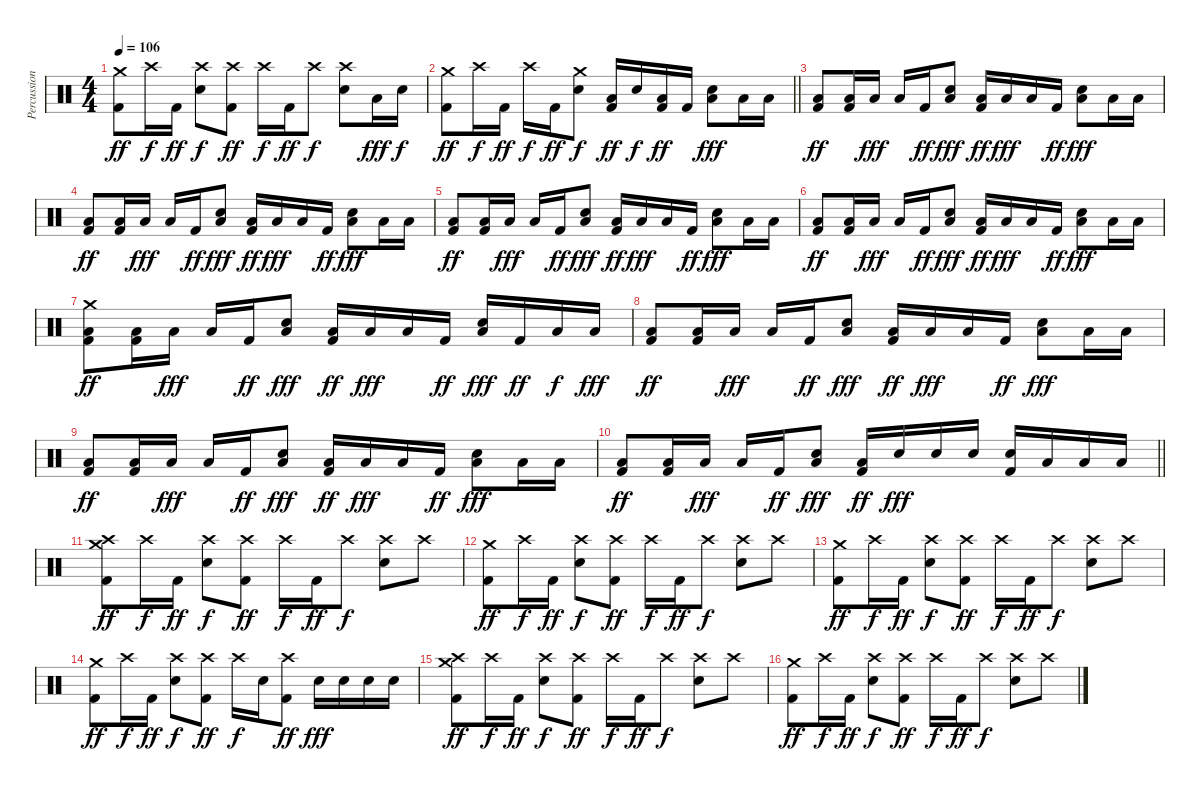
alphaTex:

\track ("Percussion" "Percussion") {instrument percussion}
\staff {score}
\articulation defaults
\ts (4 4)
\tempo 106
\clef neutral
\ks c
("Crash medium (hit)" "Kick (hit) 2").8{dy ff} "Crash high (hit)".16{dy f} "Kick (hit) 2".16{dy ff} ("Crash high (hit)" "Electric Snare (hit)").8{dy f} ("Crash high (hit)" "Kick (hit) 2").8{dy ff} "Crash high (hit)".16{dy f} "Kick (hit) 2".16{dy ff} "Crash high (hit)".8{dy f} ("Crash high (hit)" "Electric Snare (hit)").8 "Low Floor Tom (hit)".16{dy fff} "Electric Snare (hit)".16{dy f} |
\barLineRight lightlight
("Crash medium (hit)" "Kick (hit) 2").8{dy ff} "Crash high (hit)".16{dy f} "Kick (hit) 2".16{dy ff} "Crash high (hit)".16{dy f} "Kick (hit) 2".16{dy ff} ("Crash medium (hit)" "Electric Snare (hit)").8{dy f} ("Low Floor Tom (hit)" "Kick (hit) 2").16{dy ff} "Electric Snare (hit)".16{dy f} ("Low Floor Tom (hit)" "Kick (hit) 2").16{dy ff} "Kick (hit) 2".16 ("Electric Snare (hit)" "Low Floor Tom (hit)").8{dy fff} "Low Floor Tom (hit)".16 "Low Floor Tom (hit)".16 |
("Low Floor Tom (hit)" "Kick (hit) 2").8{dy ff} ("Low Floor Tom (hit)" "Kick (hit) 2").16 "Low Tom (hit)".16{dy fff} "Low Floor Tom (hit)".16 "Kick (hit) 2".16{dy ff} ("Electric Snare (hit)" "Low Floor Tom (hit)").8{dy fff} ("Low Floor Tom (hit)" "Kick (hit) 2").16{dy ff} "Low Tom (hit)".16{dy fff} "Low Floor Tom (hit)".16 "Kick (hit) 2".16{dy ff} ("Electric Snare (hit)" "Low Floor Tom (hit)").8{dy fff} "Low Tom (hit)".16 "Low Tom (hit)".16 |
("Low Floor Tom (hit)" "Kick (hit) 2").8{dy ff} ("Low Floor Tom (hit)" "Kick (hit) 2").16 "Low Tom (hit)".16{dy fff} "Low Floor Tom (hit)".16 "Kick (hit) 2".16{dy ff} ("Electric Snare (hit)" "Low Floor Tom (hit)").8{dy fff} ("Low Floor Tom (hit)" "Kick (hit) 2").16{dy ff} "Low Tom (hit)".16{dy fff} "Low Floor Tom (hit)".16 "Kick (hit) 2".16{dy ff} ("Electric Snare (hit)" "Low Floor Tom (hit)").8{dy fff} "Low Tom (hit)".16 "Low Tom (hit)".16 |
("Low Floor Tom (hit)" "Kick (hit) 2").8{dy ff} ("Low Floor Tom (hit)" "Kick (hit) 2").16 "Low Tom (hit)".16{dy fff} "Low Floor Tom (hit)".16 "Kick (hit) 2".16{dy ff} ("Electric Snare (hit)" "Low Floor Tom (hit)").8{dy fff} ("Low Floor Tom (hit)" "Kick (hit) 2").16{dy ff} "Low Tom (hit)".16{dy fff} "Low Floor Tom (hit)".16 "Kick (hit) 2".16{dy ff} ("Electric Snare (hit)" "Low Floor Tom (hit)").8{dy fff} "Low Tom (hit)".16 "Low Tom (hit)".16 |
("Low Floor Tom (hit)" "Kick (hit) 2").8{dy ff} ("Low Floor Tom (hit)" "Kick (hit) 2").16 "Low Tom (hit)".16{dy fff} "Low Floor Tom (hit)".16 "Kick (hit) 2".16{dy ff} ("Electric Snare (hit)" "Low Floor Tom (hit)").8{dy fff} ("Low Floor Tom (hit)" "Kick (hit) 2").16{dy ff} "Low Tom (hit)".16{dy fff} "Low Floor Tom (hit)".16 "Kick (hit) 2".16{dy ff} ("Electric Snare (hit)" "Low Floor Tom (hit)").8{dy fff} "Low Tom (hit)".16 "Low Tom (hit)".16 |
("Crash medium (hit)" "Low Floor Tom (hit)" "Kick (hit) 2").8{dy ff} ("Low Floor Tom (hit)" "Kick (hit) 2").16 "Low Tom (hit)".16{dy fff} "Low Floor Tom (hit)".16 "Kick (hit) 2".16{dy ff} ("Electric Snare (hit)" "Low Floor Tom (hit)").8{dy fff} ("Low Floor Tom (hit)" "Kick (hit) 2").16{dy ff} "Low Tom (hit)".16{dy fff} "Low Floor Tom (hit)".16 "Kick (hit) 2".16{dy ff} ("Electric Snare (hit)" "Low Floor Tom (hit)").16{dy fff} "Kick (hit) 2".16{dy ff} "Low Floor Tom (hit)".16{dy f} "Low Tom (hit)".16{dy fff} |
("Low Floor Tom (hit)" "Kick (hit) 2").8{dy ff} ("Low Floor Tom (hit)" "Kick (hit) 2").16 "Low Tom (hit)".16{dy fff} "Low Floor Tom (hit)".16 "Kick (hit) 2".16{dy ff} ("Electric Snare (hit)" "Low Floor Tom (hit)").8{dy fff} ("Low Floor Tom (hit)" "Kick (hit) 2").16{dy ff} "Low Tom (hit)".16{dy fff} "Low Floor Tom (hit)".16 "Kick (hit) 2".16{dy ff} ("Electric Snare (hit)" "Low Floor Tom (hit)").8{dy fff} "Low Tom (hit)".16 "Low Tom (hit)".16 |
("Low Floor Tom (hit)" "Kick (hit) 2").8{dy ff} ("Low Floor Tom (hit)" "Kick (hit) 2").16 "Low Tom (hit)".16{dy fff} "Low Floor Tom (hit)".16 "Kick (hit) 2".16{dy ff} ("Electric Snare (hit)" "Low Floor Tom (hit)").8{dy fff} ("Low Floor Tom (hit)" "Kick (hit) 2").16{dy ff} "Low Tom (hit)".16{dy fff} "Low Floor Tom (hit)".16 "Kick (hit) 2".16{dy ff} ("Electric Snare (hit)" "Low Floor Tom (hit)").8{dy fff} "Low Tom (hit)".16 "Low Tom (hit)".16 |
\barLineRight lightlight
("Low Floor Tom (hit)" "Kick (hit) 2").8{dy ff} ("Low Floor Tom (hit)" "Kick (hit) 2").16 "Low Tom (hit)".16{dy fff} "Low Floor Tom (hit)".16 "Kick (hit) 2".16{dy ff} ("Electric Snare (hit)" "Low Floor Tom (hit)").8{dy fff} ("Low Floor Tom (hit)" "Kick (hit) 2").16{dy ff} "Electric Snare (hit)".16{dy fff} "Electric Snare (hit)".16 "Electric Snare (hit)".16 ("Electric Snare (hit)" "Kick (hit) 2").16 "Low Tom (hit)".16 "Low Floor Tom (hit)".16 "Low Floor Tom (hit)".16 |
("Crash medium (hit)" "Crash high (hit)" "Kick (hit) 2").8{dy ff} "Crash high (hit)".16{dy f} "Kick (hit) 2".16{dy ff} ("Crash high (hit)" "Electric Snare (hit)").8{dy f} ("Crash high (hit)" "Kick (hit) 2").8{dy ff} "Crash high (hit)".16{dy f} "Kick (hit) 2".16{dy ff} "Crash high (hit)".8{dy f} ("Crash high (hit)" "Electric Snare (hit)").8 "Crash high (hit)".8 |
("Crash medium (hit)" "Kick (hit) 2").8{dy ff} "Crash high (hit)".16{dy f} "Kick (hit) 2".16{dy ff} ("Crash high (hit)" "Electric Snare (hit)").8{dy f} ("Crash high (hit)" "Kick (hit) 2").8{dy ff} "Crash high (hit)".16{dy f} "Kick (hit) 2".16{dy ff} "Crash high (hit)".8{dy f} ("Crash high (hit)" "Electric Snare (hit)").8 "Crash high (hit)".8 |
("Crash medium (hit)" "Kick (hit) 2").8{dy ff} "Crash high (hit)".16{dy f} "Kick (hit) 2".16{dy ff} ("Crash high (hit)" "Electric Snare (hit)").8{dy f} ("Crash high (hit)" "Kick (hit) 2").8{dy ff} "Crash high (hit)".16{dy f} "Kick (hit) 2".16{dy ff} "Crash high (hit)".8{dy f} ("Crash high (hit)" "Electric Snare (hit)").8 "Crash high (hit)".8 |
("Crash medium (hit)" "Kick (hit) 2").8{dy ff} "Crash high (hit)".16{dy f} "Kick (hit) 2".16{dy ff} ("Crash high (hit)" "Electric Snare (hit)").8{dy f} ("Crash high (hit)" "Kick (hit) 2").8{dy ff} "Crash high (hit)".16{dy f} "Electric Snare (hit)".16 ("Crash high (hit)" "Kick (hit) 2").8{dy ff} "Electric Snare (hit)".16{dy fff} "Electric Snare (hit)".16 "Electric Snare (hit)".16 "Electric Snare (hit)".16 |
("Crash medium (hit)" "Crash high (hit)" "Kick (hit) 2").8{dy ff} "Crash high (hit)".16{dy f} "Kick (hit) 2".16{dy ff} ("Crash high (hit)" "Electric Snare (hit)").8{dy f} ("Crash high (hit)" "Kick (hit) 2").8{dy ff} "Crash high (hit)".16{dy f} "Kick (hit) 2".16{dy ff} "Crash high (hit)".8{dy f} ("Crash high (hit)" "Electric Snare (hit)").8 "Crash high (hit)".8 |
("Crash medium (hit)" "Kick (hit) 2").8{dy ff} "Crash high (hit)".16{dy f} "Kick (hit) 2".16{dy ff} ("Crash high (hit)" "Electric Snare (hit)").8{dy f} ("Crash high (hit)" "Kick (hit) 2").8{dy ff} "Crash high (hit)".16{dy f} "Kick (hit) 2".16{dy ff} "Crash high (hit)".8{dy f} ("Crash high (hit)" "Electric Snare (hit)").8 "Crash high (hit)".8
